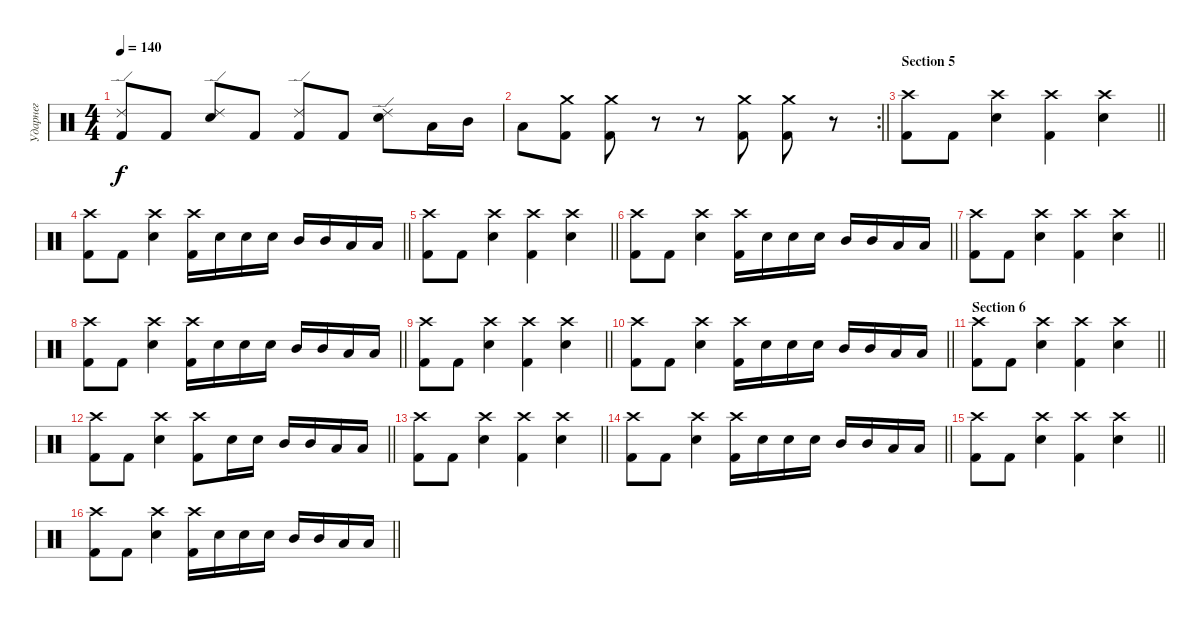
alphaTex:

\track ("Ударнег" "Ударнег") {instrument percussion}
\staff {score}
\articulation defaults
\ts (4 4)
\tempo 140
\clef neutral
\ks c
("Ride (edge) 2" "Kick (hit) 2").8{dy f} "Kick (hit) 2".8 ("Ride (edge) 2" "Snare (hit) 2").8 "Kick (hit) 2".8 ("Ride (edge) 2" "Kick (hit) 2").8 "Kick (hit) 2".8 ("Ride (edge) 2" "Snare (hit) 2").8 "Low Tom (hit)".16 "Mid Tom (hit)".16 |
\rc 2
\barLineRight lightlight "Low Tom (hit)".8
("Crash medium (hit)" "Kick (hit) 2").8 ("Crash medium (hit)" "Kick (hit) 2").8 r.8 r.8 ("Crash medium (hit)" "Kick (hit) 2").8 ("Crash medium (hit)" "Kick (hit) 2").8 r.8 |
\section ("" "Section 5")
\barLineRight lightlight
("Crash high (hit)" "Kick (hit) 2").8 "Kick (hit) 2".8 ("Crash high (hit)" "Snare (hit) 2").4 ("Crash high (hit)" "Kick (hit) 2").4 ("Crash high (hit)" "Snare (hit) 2").4 |
\barLineRight lightlight
("Crash high (hit)" "Kick (hit) 2").8 "Kick (hit) 2".8 ("Crash high (hit)" "Snare (hit) 2").4 ("Crash high (hit)" "Kick (hit) 2").16 "Snare (hit) 2".16 "Snare (hit) 2".16 "Snare (hit) 2".16 "Mid Tom (hit)".16 "Mid Tom (hit)".16 "Low Tom (hit)".16 "Low Tom (hit)".16 |
\barLineRight lightlight
("Crash high (hit)" "Kick (hit) 2").8 "Kick (hit) 2".8 ("Crash high (hit)" "Snare (hit) 2").4 ("Crash high (hit)" "Kick (hit) 2").4 ("Crash high (hit)" "Snare (hit) 2").4 |
\barLineRight lightlight
("Crash high (hit)" "Kick (hit) 2").8 "Kick (hit) 2".8 ("Crash high (hit)" "Snare (hit) 2").4 ("Crash high (hit)" "Kick (hit) 2").16 "Snare (hit) 2".16 "Snare (hit) 2".16 "Snare (hit) 2".16 "Mid Tom (hit)".16 "Mid Tom (hit)".16 "Low Tom (hit)".16 "Low Tom (hit)".16 |
\barLineRight lightlight
("Crash high (hit)" "Kick (hit) 2").8 "Kick (hit) 2".8 ("Crash high (hit)" "Snare (hit) 2").4 ("Crash high (hit)" "Kick (hit) 2").4 ("Crash high (hit)" "Snare (hit) 2").4 |
\barLineRight lightlight
("Crash high (hit)" "Kick (hit) 2").8 "Kick (hit) 2".8 ("Crash high (hit)" "Snare (hit) 2").4 ("Crash high (hit)" "Kick (hit) 2").16 "Snare (hit) 2".16 "Snare (hit) 2".16 "Snare (hit) 2".16 "Mid Tom (hit)".16 "Mid Tom (hit)".16 "Low Tom (hit)".16 "Low Tom (hit)".16 |
\barLineRight lightlight
("Crash high (hit)" "Kick (hit) 2").8 "Kick (hit) 2".8 ("Crash high (hit)" "Snare (hit) 2").4 ("Crash high (hit)" "Kick (hit) 2").4 ("Crash high (hit)" "Snare (hit) 2").4 |
\barLineRight lightlight
("Crash high (hit)" "Kick (hit) 2").8 "Kick (hit) 2".8 ("Crash high (hit)" "Snare (hit) 2").4 ("Crash high (hit)" "Kick (hit) 2").16 "Snare (hit) 2".16 "Snare (hit) 2".16 "Snare (hit) 2".16 "Mid Tom (hit)".16 "Mid Tom (hit)".16 "Low Tom (hit)".16 "Low Tom (hit)".16 |
\section ("" "Section 6")
\barLineRight lightlight
("Crash high (hit)" "Kick (hit) 2").8 "Kick (hit) 2".8 ("Crash high (hit)" "Snare (hit) 2").4 ("Crash high (hit)" "Kick (hit) 2").4 ("Crash high (hit)" "Snare (hit) 2").4 |
\barLineRight lightlight
("Crash high (hit)" "Kick (hit) 2").8 "Kick (hit) 2".8 ("Crash high (hit)" "Snare (hit) 2").4 ("Crash high (hit)" "Kick (hit) 2").8 "Snare (hit) 2".16 "Snare (hit) 2".16 "Mid Tom (hit)".16 "Mid Tom (hit)".16 "Low Tom (hit)".16 "Low Tom (hit)".16 |
\barLineRight lightlight
("Crash high (hit)" "Kick (hit) 2").8 "Kick (hit) 2".8 ("Crash high (hit)" "Snare (hit) 2").4 ("Crash high (hit)" "Kick (hit) 2").4 ("Crash high (hit)" "Snare (hit) 2").4 |
\barLineRight lightlight
("Crash high (hit)" "Kick (hit) 2").8 "Kick (hit) 2".8 ("Crash high (hit)" "Snare (hit) 2").4 ("Crash high (hit)" "Kick (hit) 2").16 "Snare (hit) 2".16 "Snare (hit) 2".16 "Snare (hit) 2".16 "Mid Tom (hit)".16 "Mid Tom (hit)".16 "Low Tom (hit)".16 "Low Tom (hit)".16 |
\barLineRight lightlight
("Crash high (hit)" "Kick (hit) 2").8 "Kick (hit) 2".8 ("Crash high (hit)" "Snare (hit) 2").4 ("Crash high (hit)" "Kick (hit) 2").4 ("Crash high (hit)" "Snare (hit) 2").4 |
\barLineRight lightlight
("Crash high (hit)" "Kick (hit) 2").8 "Kick (hit) 2".8 ("Crash high (hit)" "Snare (hit) 2").4 ("Crash high (hit)" "Kick (hit) 2").16 "Snare (hit) 2".16 "Snare (hit) 2".16 "Snare (hit) 2".16 "Mid Tom (hit)".16 "Mid Tom (hit)".16 "Low Tom (hit)".16 "Low Tom (hit)".16
